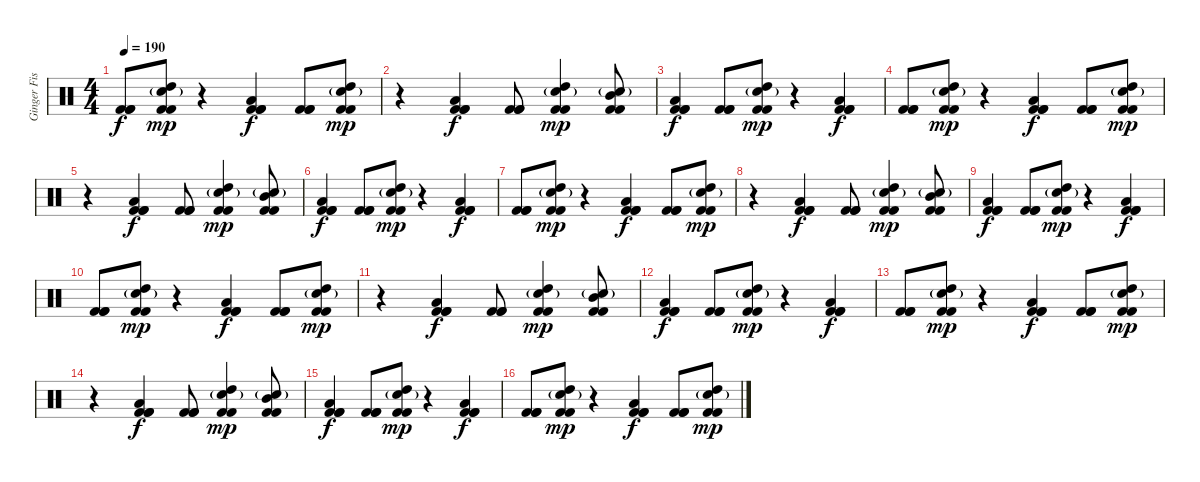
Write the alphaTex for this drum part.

\track ("Ginger Fish" "Ginger Fis") {instrument percussion}
\staff {score}
\articulation defaults
\ts (4 4)
\tempo 190
\clef neutral
\ks c
("Kick (hit) 2" "Kick (hit) 2" "Kick (hit) 2").8{dy f} ("High Tom (hit)" "Electric Snare (hit)"{g} "Kick (hit) 2" "Kick (hit) 2").8{dy mp} r.4 ("Low Tom (hit)" "Kick (hit) 2" "Kick (hit) 2" "Kick (hit) 2").4{dy f} ("Kick (hit) 2" "Kick (hit) 2" "Kick (hit) 2").8 ("High Tom (hit)" "Electric Snare (hit)"{g} "Kick (hit) 2" "Kick (hit) 2").8{dy mp} |
r.4 ("Low Tom (hit)" "Kick (hit) 2" "Kick (hit) 2" "Kick (hit) 2").4{dy f} ("Kick (hit) 2" "Kick (hit) 2" "Kick (hit) 2").8 ("High Tom (hit)" "Electric Snare (hit)"{g} "Kick (hit) 2" "Kick (hit) 2").4{dy mp} ("Mid Tom (hit)" "Electric Snare (hit)"{g} "Kick (hit) 2" "Kick (hit) 2").8 |
("Low Tom (hit)" "Kick (hit) 2" "Kick (hit) 2" "Kick (hit) 2").4{dy f} ("Kick (hit) 2" "Kick (hit) 2" "Kick (hit) 2").8 ("High Tom (hit)" "Electric Snare (hit)"{g} "Kick (hit) 2" "Kick (hit) 2").8{dy mp} r.4 ("Low Tom (hit)" "Kick (hit) 2" "Kick (hit) 2" "Kick (hit) 2").4{dy f} |
("Kick (hit) 2" "Kick (hit) 2" "Kick (hit) 2").8 ("High Tom (hit)" "Electric Snare (hit)"{g} "Kick (hit) 2" "Kick (hit) 2").8{dy mp} r.4 ("Low Tom (hit)" "Kick (hit) 2" "Kick (hit) 2" "Kick (hit) 2").4{dy f} ("Kick (hit) 2" "Kick (hit) 2" "Kick (hit) 2").8 ("High Tom (hit)" "Electric Snare (hit)"{g} "Kick (hit) 2" "Kick (hit) 2").8{dy mp} |
r.4 ("Low Tom (hit)" "Kick (hit) 2" "Kick (hit) 2" "Kick (hit) 2").4{dy f} ("Kick (hit) 2" "Kick (hit) 2" "Kick (hit) 2").8 ("High Tom (hit)" "Electric Snare (hit)"{g} "Kick (hit) 2" "Kick (hit) 2").4{dy mp} ("Mid Tom (hit)" "Electric Snare (hit)"{g} "Kick (hit) 2" "Kick (hit) 2").8 |
("Low Tom (hit)" "Kick (hit) 2" "Kick (hit) 2" "Kick (hit) 2").4{dy f} ("Kick (hit) 2" "Kick (hit) 2" "Kick (hit) 2").8 ("High Tom (hit)" "Electric Snare (hit)"{g} "Kick (hit) 2" "Kick (hit) 2").8{dy mp} r.4 ("Low Tom (hit)" "Kick (hit) 2" "Kick (hit) 2" "Kick (hit) 2").4{dy f} |
("Kick (hit) 2" "Kick (hit) 2" "Kick (hit) 2").8 ("High Tom (hit)" "Electric Snare (hit)"{g} "Kick (hit) 2" "Kick (hit) 2").8{dy mp} r.4 ("Low Tom (hit)" "Kick (hit) 2" "Kick (hit) 2" "Kick (hit) 2").4{dy f} ("Kick (hit) 2" "Kick (hit) 2" "Kick (hit) 2").8 ("High Tom (hit)" "Electric Snare (hit)"{g} "Kick (hit) 2" "Kick (hit) 2").8{dy mp} |
r.4 ("Low Tom (hit)" "Kick (hit) 2" "Kick (hit) 2" "Kick (hit) 2").4{dy f} ("Kick (hit) 2" "Kick (hit) 2" "Kick (hit) 2").8 ("High Tom (hit)" "Electric Snare (hit)"{g} "Kick (hit) 2" "Kick (hit) 2").4{dy mp} ("Mid Tom (hit)" "Electric Snare (hit)"{g} "Kick (hit) 2" "Kick (hit) 2").8 |
("Low Tom (hit)" "Kick (hit) 2" "Kick (hit) 2" "Kick (hit) 2").4{dy f} ("Kick (hit) 2" "Kick (hit) 2" "Kick (hit) 2").8 ("High Tom (hit)" "Electric Snare (hit)"{g} "Kick (hit) 2" "Kick (hit) 2").8{dy mp} r.4 ("Low Tom (hit)" "Kick (hit) 2" "Kick (hit) 2" "Kick (hit) 2").4{dy f} |
("Kick (hit) 2" "Kick (hit) 2" "Kick (hit) 2").8 ("High Tom (hit)" "Electric Snare (hit)"{g} "Kick (hit) 2" "Kick (hit) 2").8{dy mp} r.4 ("Low Tom (hit)" "Kick (hit) 2" "Kick (hit) 2" "Kick (hit) 2").4{dy f} ("Kick (hit) 2" "Kick (hit) 2" "Kick (hit) 2").8 ("High Tom (hit)" "Electric Snare (hit)"{g} "Kick (hit) 2" "Kick (hit) 2").8{dy mp} |
r.4 ("Low Tom (hit)" "Kick (hit) 2" "Kick (hit) 2" "Kick (hit) 2").4{dy f} ("Kick (hit) 2" "Kick (hit) 2" "Kick (hit) 2").8 ("High Tom (hit)" "Electric Snare (hit)"{g} "Kick (hit) 2" "Kick (hit) 2").4{dy mp} ("Mid Tom (hit)" "Electric Snare (hit)"{g} "Kick (hit) 2" "Kick (hit) 2").8 |
("Low Tom (hit)" "Kick (hit) 2" "Kick (hit) 2" "Kick (hit) 2").4{dy f} ("Kick (hit) 2" "Kick (hit) 2" "Kick (hit) 2").8 ("High Tom (hit)" "Electric Snare (hit)"{g} "Kick (hit) 2" "Kick (hit) 2").8{dy mp} r.4 ("Low Tom (hit)" "Kick (hit) 2" "Kick (hit) 2" "Kick (hit) 2").4{dy f} |
("Kick (hit) 2" "Kick (hit) 2" "Kick (hit) 2").8 ("High Tom (hit)" "Electric Snare (hit)"{g} "Kick (hit) 2" "Kick (hit) 2").8{dy mp} r.4 ("Low Tom (hit)" "Kick (hit) 2" "Kick (hit) 2" "Kick (hit) 2").4{dy f} ("Kick (hit) 2" "Kick (hit) 2" "Kick (hit) 2").8 ("High Tom (hit)" "Electric Snare (hit)"{g} "Kick (hit) 2" "Kick (hit) 2").8{dy mp} |
r.4 ("Low Tom (hit)" "Kick (hit) 2" "Kick (hit) 2" "Kick (hit) 2").4{dy f} ("Kick (hit) 2" "Kick (hit) 2" "Kick (hit) 2").8 ("High Tom (hit)" "Electric Snare (hit)"{g} "Kick (hit) 2" "Kick (hit) 2").4{dy mp} ("Mid Tom (hit)" "Electric Snare (hit)"{g} "Kick (hit) 2" "Kick (hit) 2").8 |
("Low Tom (hit)" "Kick (hit) 2" "Kick (hit) 2" "Kick (hit) 2").4{dy f} ("Kick (hit) 2" "Kick (hit) 2" "Kick (hit) 2").8 ("High Tom (hit)" "Electric Snare (hit)"{g} "Kick (hit) 2" "Kick (hit) 2").8{dy mp} r.4 ("Low Tom (hit)" "Kick (hit) 2" "Kick (hit) 2" "Kick (hit) 2").4{dy f} |
("Kick (hit) 2" "Kick (hit) 2" "Kick (hit) 2").8 ("High Tom (hit)" "Electric Snare (hit)"{g} "Kick (hit) 2" "Kick (hit) 2").8{dy mp} r.4 ("Low Tom (hit)" "Kick (hit) 2" "Kick (hit) 2" "Kick (hit) 2").4{dy f} ("Kick (hit) 2" "Kick (hit) 2" "Kick (hit) 2").8 ("High Tom (hit)" "Electric Snare (hit)"{g} "Kick (hit) 2" "Kick (hit) 2").8{dy mp}
